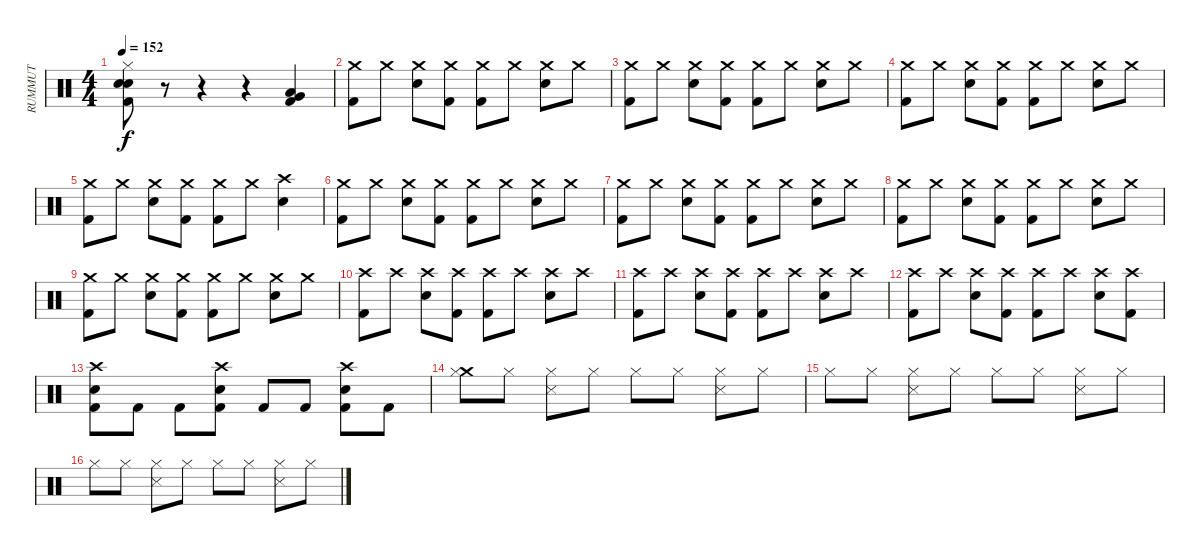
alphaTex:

\track ("RUMMUT" "RUMMUT") {instrument percussion}
\staff {score}
\articulation defaults
\ts (4 4)
\tempo 152
\clef neutral
\ks c
("Hi-Hat (closed)" "Electric Snare (hit)" "Electric Snare (hit)" "Kick (hit) 2").8{dy f} r.8 r.4 r.4 ("Very Low Tom (hit)" "Low Floor Tom (hit)" "Kick (hit) 2").4 |
("Crash medium (hit)" "Kick (hit) 2").8 "Crash medium (hit)".8 ("Crash medium (hit)" "Electric Snare (hit)").8 ("Crash medium (hit)" "Kick (hit) 2").8 ("Crash medium (hit)" "Kick (hit) 2").8 "Crash medium (hit)".8 ("Crash medium (hit)" "Electric Snare (hit)").8 "Crash medium (hit)".8 |
("Crash medium (hit)" "Kick (hit) 2").8 "Crash medium (hit)".8 ("Crash medium (hit)" "Electric Snare (hit)").8 ("Crash medium (hit)" "Kick (hit) 2").8 ("Crash medium (hit)" "Kick (hit) 2").8 "Crash medium (hit)".8 ("Crash medium (hit)" "Electric Snare (hit)").8 "Crash medium (hit)".8 |
("Crash medium (hit)" "Kick (hit) 2").8 "Crash medium (hit)".8 ("Crash medium (hit)" "Electric Snare (hit)").8 ("Crash medium (hit)" "Kick (hit) 2").8 ("Crash medium (hit)" "Kick (hit) 2").8 "Crash medium (hit)".8 ("Crash medium (hit)" "Electric Snare (hit)").8 "Crash medium (hit)".8 |
("Crash medium (hit)" "Kick (hit) 2").8 "Crash medium (hit)".8 ("Crash medium (hit)" "Electric Snare (hit)").8 ("Crash medium (hit)" "Kick (hit) 2").8 ("Crash medium (hit)" "Kick (hit) 2").8 "Crash medium (hit)".8 ("Crash high (hit)" "Electric Snare (hit)").4 |
("Crash medium (hit)" "Kick (hit) 2").8 "Crash medium (hit)".8 ("Crash medium (hit)" "Electric Snare (hit)").8 ("Crash medium (hit)" "Kick (hit) 2").8 ("Crash medium (hit)" "Kick (hit) 2").8 "Crash medium (hit)".8 ("Crash medium (hit)" "Electric Snare (hit)").8 "Crash medium (hit)".8 |
("Crash medium (hit)" "Kick (hit) 2").8 "Crash medium (hit)".8 ("Crash medium (hit)" "Electric Snare (hit)").8 ("Crash medium (hit)" "Kick (hit) 2").8 ("Crash medium (hit)" "Kick (hit) 2").8 "Crash medium (hit)".8 ("Crash medium (hit)" "Electric Snare (hit)").8 "Crash medium (hit)".8 |
("Crash medium (hit)" "Kick (hit) 2").8 "Crash medium (hit)".8 ("Crash medium (hit)" "Electric Snare (hit)").8 ("Crash medium (hit)" "Kick (hit) 2").8 ("Crash medium (hit)" "Kick (hit) 2").8 "Crash medium (hit)".8 ("Crash medium (hit)" "Electric Snare (hit)").8 "Crash medium (hit)".8 |
("Crash medium (hit)" "Kick (hit) 2").8 "Crash medium (hit)".8 ("Crash medium (hit)" "Electric Snare (hit)").8 ("Crash medium (hit)" "Kick (hit) 2").8 ("Crash medium (hit)" "Kick (hit) 2").8 "Crash medium (hit)".8 ("Crash medium (hit)" "Electric Snare (hit)").8 "Crash medium (hit)".8 |
("Crash high (hit)" "Kick (hit) 2").8 "Crash high (hit)".8 ("Crash high (hit)" "Electric Snare (hit)").8 ("Crash high (hit)" "Kick (hit) 2").8 ("Crash high (hit)" "Kick (hit) 2").8 "Crash high (hit)".8 ("Crash high (hit)" "Electric Snare (hit)").8 "Crash high (hit)".8 |
("Crash high (hit)" "Kick (hit) 2").8 "Crash high (hit)".8 ("Crash high (hit)" "Electric Snare (hit)").8 ("Crash high (hit)" "Kick (hit) 2").8 ("Crash high (hit)" "Kick (hit) 2").8 "Crash high (hit)".8 ("Crash high (hit)" "Electric Snare (hit)").8 "Crash high (hit)".8 |
("Crash high (hit)" "Kick (hit) 2").8 "Crash high (hit)".8 ("Crash high (hit)" "Electric Snare (hit)").8 ("Crash high (hit)" "Kick (hit) 2").8 ("Crash high (hit)" "Kick (hit) 2").8 "Crash high (hit)".8 ("Crash high (hit)" "Electric Snare (hit)").8 ("Crash high (hit)" "Kick (hit) 2").8 |
("Crash high (hit)" "Electric Snare (hit)" "Kick (hit) 2").8 "Kick (hit) 2".8 "Kick (hit) 2".8 ("Crash high (hit)" "Electric Snare (hit)" "Kick (hit) 2").8 "Kick (hit) 2".8 "Kick (hit) 2".8 ("Crash high (hit)" "Electric Snare (hit)" "Kick (hit) 2").8 "Kick (hit) 2".8 |
("Crash medium (hit)" "Hi-Hat (closed)").8 "Hi-Hat (closed)".8 ("Hi-Hat (closed)" "Snare (side stick) 3").8 "Hi-Hat (closed)".8 "Hi-Hat (closed)".8 "Hi-Hat (closed)".8 ("Hi-Hat (closed)" "Snare (side stick) 3").8 "Hi-Hat (closed)".8 |
"Hi-Hat (closed)".8 "Hi-Hat (closed)".8 ("Hi-Hat (closed)" "Snare (side stick) 3").8 "Hi-Hat (closed)".8 "Hi-Hat (closed)".8 "Hi-Hat (closed)".8 ("Hi-Hat (closed)" "Snare (side stick) 3").8 "Hi-Hat (closed)".8 |
"Hi-Hat (closed)".8 "Hi-Hat (closed)".8 ("Hi-Hat (closed)" "Snare (side stick) 3").8 "Hi-Hat (closed)".8 "Hi-Hat (closed)".8 "Hi-Hat (closed)".8 ("Hi-Hat (closed)" "Snare (side stick) 3").8 "Hi-Hat (closed)".8
